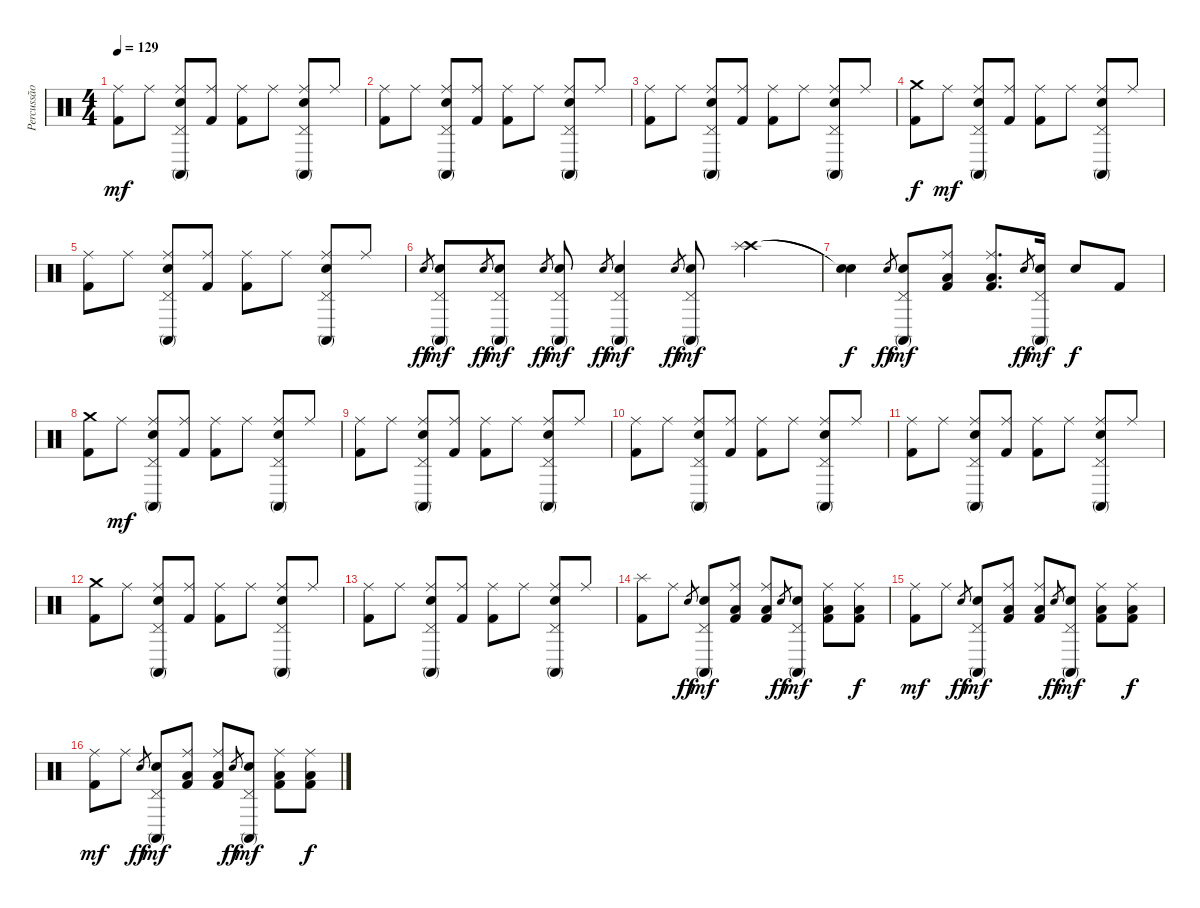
\track ("Percussão" "Percussão") {instrument percussion}
\staff {score}
\articulation defaults
\ts (4 4)
\tempo 129
\clef neutral
\ks c
("Ride (middle)" "Kick (hit) 2").8{dy mf} "Ride (middle)".8 ("Ride (middle)" "Snare (hit) 2" "Conga high (mute)" "Pedal Hi-Hat (hit)").8 ("Ride (middle)" "Kick (hit) 2").8 ("Ride (middle)" "Kick (hit) 2").8 "Ride (middle)".8 ("Ride (middle)" "Snare (hit) 2" "Conga high (mute)" "Pedal Hi-Hat (hit)").8 "Ride (middle)".8 |
("Ride (middle)" "Kick (hit) 2").8 "Ride (middle)".8 ("Ride (middle)" "Snare (hit) 2" "Conga high (mute)" "Pedal Hi-Hat (hit)").8 ("Ride (middle)" "Kick (hit) 2").8 ("Ride (middle)" "Kick (hit) 2").8 "Ride (middle)".8 ("Ride (middle)" "Snare (hit) 2" "Conga high (mute)" "Pedal Hi-Hat (hit)").8 "Ride (middle)".8 |
("Ride (middle)" "Kick (hit) 2").8 "Ride (middle)".8 ("Ride (middle)" "Snare (hit) 2" "Conga high (mute)" "Pedal Hi-Hat (hit)").8 ("Ride (middle)" "Kick (hit) 2").8 ("Ride (middle)" "Kick (hit) 2").8 "Ride (middle)".8 ("Ride (middle)" "Snare (hit) 2" "Conga high (mute)" "Pedal Hi-Hat (hit)").8 "Ride (middle)".8 |
("Crash medium (hit)" "Kick (hit) 2").8{dy f} "Ride (middle)".8{dy mf} ("Ride (middle)" "Snare (hit) 2" "Conga high (mute)" "Pedal Hi-Hat (hit)").8 ("Ride (middle)" "Kick (hit) 2").8 ("Ride (middle)" "Kick (hit) 2").8 "Ride (middle)".8 ("Ride (middle)" "Snare (hit) 2" "Conga high (mute)" "Pedal Hi-Hat (hit)").8 "Ride (middle)".8 |
("Ride (middle)" "Kick (hit) 2").8 "Ride (middle)".8 ("Ride (middle)" "Snare (hit) 2" "Conga high (mute)" "Pedal Hi-Hat (hit)").8 ("Ride (middle)" "Kick (hit) 2").8 ("Ride (middle)" "Kick (hit) 2").8 "Ride (middle)".8 ("Ride (middle)" "Snare (hit) 2" "Conga high (mute)" "Pedal Hi-Hat (hit)").8 "Ride (middle)".8 |
"Snare (hit) 2".8{gr dy ff} ("Snare (hit) 2" "Conga high (mute)" "Pedal Hi-Hat (hit)").8{dy mf} "Snare (hit) 2".8{gr dy ff} ("Snare (hit) 2" "Conga high (mute)" "Pedal Hi-Hat (hit)").8{dy mf} "Snare (hit) 2".8{gr dy ff} ("Snare (hit) 2" "Conga high (mute)" "Pedal Hi-Hat (hit)").8{dy mf} "Snare (hit) 2".8{gr dy ff} ("Snare (hit) 2" "Conga high (mute)" "Pedal Hi-Hat (hit)").4{dy mf} "Snare (hit) 2".8{gr dy ff} ("Snare (hit) 2" "Conga high (mute)" "Pedal Hi-Hat (hit)").8{dy mf} ("Crash high (hit)" "Splash (hit)").4 |
("Snare (hit)"{t} "Snare (hit)"{t}).4{dy f} "Snare (hit) 2".8{gr dy ff} ("Snare (hit) 2" "Conga high (mute)" "Pedal Hi-Hat (hit)").8{dy mf} ("Ride (middle)" "Low Floor Tom (hit)" "Kick (hit) 2").8 ("Ride (middle)" "Low Floor Tom (hit)" "Kick (hit) 2").8{d} "Snare (hit) 2".8{gr dy ff} ("Snare (hit) 2" "Conga high (mute)" "Pedal Hi-Hat (hit)").16{dy mf} "Snare (hit) 2".8{dy f} "Kick (hit) 2".8 |
("Crash medium (hit)" "Kick (hit) 2").8 "Ride (middle)".8{dy mf} ("Ride (middle)" "Snare (hit) 2" "Conga high (mute)" "Pedal Hi-Hat (hit)").8 ("Ride (middle)" "Kick (hit) 2").8 ("Ride (middle)" "Kick (hit) 2").8 "Ride (middle)".8 ("Ride (middle)" "Snare (hit) 2" "Conga high (mute)" "Pedal Hi-Hat (hit)").8 "Ride (middle)".8 |
("Ride (middle)" "Kick (hit) 2").8 "Ride (middle)".8 ("Ride (middle)" "Snare (hit) 2" "Conga high (mute)" "Pedal Hi-Hat (hit)").8 ("Ride (middle)" "Kick (hit) 2").8 ("Ride (middle)" "Kick (hit) 2").8 "Ride (middle)".8 ("Ride (middle)" "Snare (hit) 2" "Conga high (mute)" "Pedal Hi-Hat (hit)").8 "Ride (middle)".8 |
("Ride (middle)" "Kick (hit) 2").8 "Ride (middle)".8 ("Ride (middle)" "Snare (hit) 2" "Conga high (mute)" "Pedal Hi-Hat (hit)").8 ("Ride (middle)" "Kick (hit) 2").8 ("Ride (middle)" "Kick (hit) 2").8 "Ride (middle)".8 ("Ride (middle)" "Snare (hit) 2" "Conga high (mute)" "Pedal Hi-Hat (hit)").8 "Ride (middle)".8 |
("Ride (middle)" "Kick (hit) 2").8 "Ride (middle)".8 ("Ride (middle)" "Snare (hit) 2" "Conga high (mute)" "Pedal Hi-Hat (hit)").8 ("Ride (middle)" "Kick (hit) 2").8 ("Ride (middle)" "Kick (hit) 2").8 "Ride (middle)".8 ("Ride (middle)" "Snare (hit) 2" "Conga high (mute)" "Pedal Hi-Hat (hit)").8 "Ride (middle)".8 |
("Crash medium (hit)" "Kick (hit) 2").8 "Ride (middle)".8 ("Ride (middle)" "Snare (hit) 2" "Conga high (mute)" "Pedal Hi-Hat (hit)").8 ("Ride (middle)" "Kick (hit) 2").8 ("Ride (middle)" "Kick (hit) 2").8 "Ride (middle)".8 ("Ride (middle)" "Snare (hit) 2" "Conga high (mute)" "Pedal Hi-Hat (hit)").8 "Ride (middle)".8 |
("Ride (middle)" "Kick (hit) 2").8 "Ride (middle)".8 ("Ride (middle)" "Snare (hit) 2" "Conga high (mute)" "Pedal Hi-Hat (hit)").8 ("Ride (middle)" "Kick (hit) 2").8 ("Ride (middle)" "Kick (hit) 2").8 "Ride (middle)".8 ("Ride (middle)" "Snare (hit) 2" "Conga high (mute)" "Pedal Hi-Hat (hit)").8 "Ride (middle)".8 |
("Splash (hit)" "Kick (hit) 2").8 "Ride (middle)".8 "Snare (hit) 2".8{gr dy ff} ("Snare (hit) 2" "Conga high (mute)" "Pedal Hi-Hat (hit)").8{dy mf} ("Ride (middle)" "Low Floor Tom (hit)" "Kick (hit) 2").8 ("Ride (middle)" "Low Floor Tom (hit)" "Kick (hit) 2").8 "Snare (hit) 2".8{gr dy ff} ("Snare (hit) 2" "Conga high (mute)" "Pedal Hi-Hat (hit)").8{dy mf} ("Ride (middle)" "Low Floor Tom (hit)" "Kick (hit) 2").8 ("Ride (middle)" "Low Floor Tom (hit)" "Kick (hit) 2").8{dy f} |
("Ride (middle)" "Kick (hit) 2").8{dy mf} "Ride (middle)".8 "Snare (hit) 2".8{gr dy ff} ("Snare (hit) 2" "Conga high (mute)" "Pedal Hi-Hat (hit)").8{dy mf} ("Ride (middle)" "Low Floor Tom (hit)" "Kick (hit) 2").8 ("Ride (middle)" "Low Floor Tom (hit)" "Kick (hit) 2").8 "Snare (hit) 2".8{gr dy ff} ("Snare (hit) 2" "Conga high (mute)" "Pedal Hi-Hat (hit)").8{dy mf} ("Ride (middle)" "Low Floor Tom (hit)" "Kick (hit) 2").8 ("Ride (middle)" "Low Floor Tom (hit)" "Kick (hit) 2").8{dy f} |
("Ride (middle)" "Kick (hit) 2").8{dy mf} "Ride (middle)".8 "Snare (hit) 2".8{gr dy ff} ("Snare (hit) 2" "Conga high (mute)" "Pedal Hi-Hat (hit)").8{dy mf} ("Ride (middle)" "Low Floor Tom (hit)" "Kick (hit) 2").8 ("Ride (middle)" "Low Floor Tom (hit)" "Kick (hit) 2").8 "Snare (hit) 2".8{gr dy ff} ("Snare (hit) 2" "Conga high (mute)" "Pedal Hi-Hat (hit)").8{dy mf} ("Ride (middle)" "Low Floor Tom (hit)" "Kick (hit) 2").8 ("Ride (middle)" "Low Floor Tom (hit)" "Kick (hit) 2").8{dy f}
